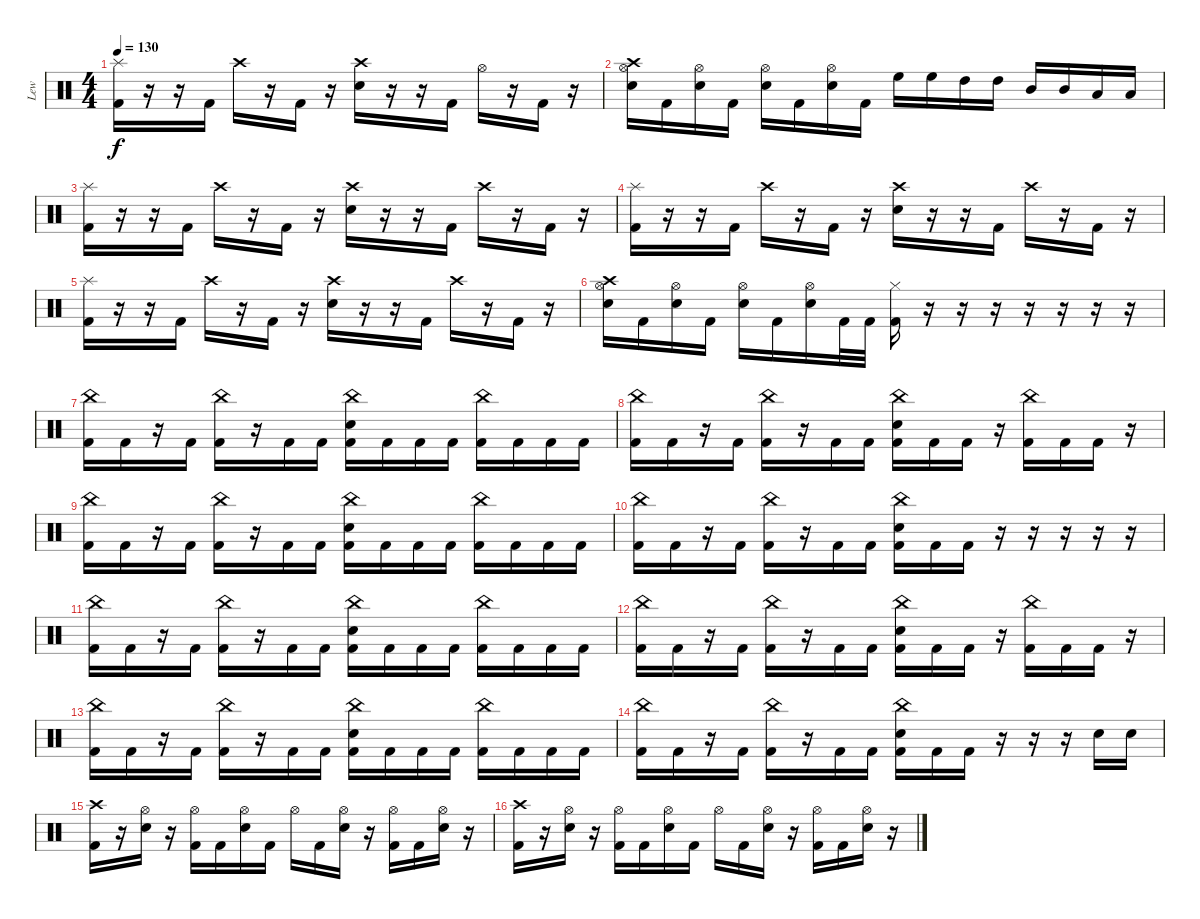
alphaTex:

\track ("Lew" "Lew") {instrument percussion}
\staff {score}
\articulation defaults
\ts (4 4)
\tempo 130
\clef neutral
\ks c
("Splash (hit)" "Kick (hit) 2").16{dy f} r.16 r.16 "Kick (hit) 2".16 "Crash high (hit)".16 r.16 "Kick (hit) 2".16 r.16 ("Crash high (hit)" "Electric Snare (hit)").16 r.16 r.16 "Kick (hit) 2".16 "Hi-Hat (open)".16 r.16 "Kick (hit) 2".16 r.16 |
("Crash high (hit)" "Hi-Hat (open)" "Electric Snare (hit)").16 "Kick (hit) 2".16 ("Hi-Hat (open)" "Electric Snare (hit)").16 "Kick (hit) 2".16 ("Hi-Hat (open)" "Electric Snare (hit)").16 "Kick (hit) 2".16 ("Hi-Hat (open)" "Electric Snare (hit)").16 "Kick (hit) 2".16 "High Floor Tom (hit)".16 "High Floor Tom (hit)".16 "High Tom (hit)".16 "High Tom (hit)".16 "Mid Tom (hit)".16 "Mid Tom (hit)".16 "Low Tom (hit)".16 "Low Tom (hit)".16 |
("Splash (hit)" "Kick (hit) 2").16 r.16 r.16 "Kick (hit) 2".16 "Crash high (hit)".16 r.16 "Kick (hit) 2".16 r.16 ("Crash high (hit)" "Electric Snare (hit)").16 r.16 r.16 "Kick (hit) 2".16 "Crash high (hit)".16 r.16 "Kick (hit) 2".16 r.16 |
("Splash (hit)" "Kick (hit) 2").16 r.16 r.16 "Kick (hit) 2".16 "Crash high (hit)".16 r.16 "Kick (hit) 2".16 r.16 ("Crash high (hit)" "Electric Snare (hit)").16 r.16 r.16 "Kick (hit) 2".16 "Crash high (hit)".16 r.16 "Kick (hit) 2".16 r.16 |
("Splash (hit)" "Kick (hit) 2").16 r.16 r.16 "Kick (hit) 2".16 "Crash high (hit)".16 r.16 "Kick (hit) 2".16 r.16 ("Crash high (hit)" "Electric Snare (hit)").16 r.16 r.16 "Kick (hit) 2".16 "Crash high (hit)".16 r.16 "Kick (hit) 2".16 r.16 |
("Crash high (hit)" "Hi-Hat (open)" "Electric Snare (hit)").16 "Kick (hit) 2".16 ("Hi-Hat (open)" "Electric Snare (hit)").16 "Kick (hit) 2".16 ("Hi-Hat (open)" "Electric Snare (hit)").16 "Kick (hit) 2".16 ("Hi-Hat (open)" "Electric Snare (hit)").16 "Kick (hit) 2".32 "Kick (hit) 2".32 ("Kick (hit) 2" "Hi-Hat (closed)").16 r.16 r.16 r.16 r.16 r.16 r.16 r.16 |
("China (hit)" "Kick (hit) 2").16 "Kick (hit) 2".16 r.16 "Kick (hit) 2".16 ("China (hit)" "Kick (hit) 2").16 r.16 "Kick (hit) 2".16 "Kick (hit) 2".16 ("China (hit)" "Electric Snare (hit)" "Kick (hit) 2").16 "Kick (hit) 2".16 "Kick (hit) 2".16 "Kick (hit) 2".16 ("China (hit)" "Kick (hit) 2").16 "Kick (hit) 2".16 "Kick (hit) 2".16 "Kick (hit) 2".16 |
("China (hit)" "Kick (hit) 2").16 "Kick (hit) 2".16 r.16 "Kick (hit) 2".16 ("China (hit)" "Kick (hit) 2").16 r.16 "Kick (hit) 2".16 "Kick (hit) 2".16 ("China (hit)" "Electric Snare (hit)" "Kick (hit) 2").16 "Kick (hit) 2".16 "Kick (hit) 2".16 r.16 ("China (hit)" "Kick (hit) 2").16 "Kick (hit) 2".16 "Kick (hit) 2".16 r.16 |
("China (hit)" "Kick (hit) 2").16 "Kick (hit) 2".16 r.16 "Kick (hit) 2".16 ("China (hit)" "Kick (hit) 2").16 r.16 "Kick (hit) 2".16 "Kick (hit) 2".16 ("China (hit)" "Electric Snare (hit)" "Kick (hit) 2").16 "Kick (hit) 2".16 "Kick (hit) 2".16 "Kick (hit) 2".16 ("China (hit)" "Kick (hit) 2").16 "Kick (hit) 2".16 "Kick (hit) 2".16 "Kick (hit) 2".16 |
("China (hit)" "Kick (hit) 2").16 "Kick (hit) 2".16 r.16 "Kick (hit) 2".16 ("China (hit)" "Kick (hit) 2").16 r.16 "Kick (hit) 2".16 "Kick (hit) 2".16 ("China (hit)" "Electric Snare (hit)" "Kick (hit) 2").16 "Kick (hit) 2".16 "Kick (hit) 2".16 r.16 r.16 r.16 r.16 r.16 |
("China (hit)" "Kick (hit) 2").16 "Kick (hit) 2".16 r.16 "Kick (hit) 2".16 ("China (hit)" "Kick (hit) 2").16 r.16 "Kick (hit) 2".16 "Kick (hit) 2".16 ("China (hit)" "Electric Snare (hit)" "Kick (hit) 2").16 "Kick (hit) 2".16 "Kick (hit) 2".16 "Kick (hit) 2".16 ("China (hit)" "Kick (hit) 2").16 "Kick (hit) 2".16 "Kick (hit) 2".16 "Kick (hit) 2".16 |
("China (hit)" "Kick (hit) 2").16 "Kick (hit) 2".16 r.16 "Kick (hit) 2".16 ("China (hit)" "Kick (hit) 2").16 r.16 "Kick (hit) 2".16 "Kick (hit) 2".16 ("China (hit)" "Electric Snare (hit)" "Kick (hit) 2").16 "Kick (hit) 2".16 "Kick (hit) 2".16 r.16 ("China (hit)" "Kick (hit) 2").16 "Kick (hit) 2".16 "Kick (hit) 2".16 r.16 |
("China (hit)" "Kick (hit) 2").16 "Kick (hit) 2".16 r.16 "Kick (hit) 2".16 ("China (hit)" "Kick (hit) 2").16 r.16 "Kick (hit) 2".16 "Kick (hit) 2".16 ("China (hit)" "Electric Snare (hit)" "Kick (hit) 2").16 "Kick (hit) 2".16 "Kick (hit) 2".16 "Kick (hit) 2".16 ("China (hit)" "Kick (hit) 2").16 "Kick (hit) 2".16 "Kick (hit) 2".16 "Kick (hit) 2".16 |
("China (hit)" "Kick (hit) 2").16 "Kick (hit) 2".16 r.16 "Kick (hit) 2".16 ("China (hit)" "Kick (hit) 2").16 r.16 "Kick (hit) 2".16 "Kick (hit) 2".16 ("China (hit)" "Electric Snare (hit)" "Kick (hit) 2").16 "Kick (hit) 2".16 "Kick (hit) 2".16 r.16 r.16 r.16 "Electric Snare (hit)".16 "Electric Snare (hit)".16 |
("Crash high (hit)" "Kick (hit) 2").16 r.16 ("Hi-Hat (open)" "Electric Snare (hit)").16 r.16 ("Hi-Hat (open)" "Kick (hit) 2").16 "Kick (hit) 2".16 ("Hi-Hat (open)" "Electric Snare (hit)").16 "Kick (hit) 2".16 "Hi-Hat (open)".16 "Kick (hit) 2".16 ("Hi-Hat (open)" "Electric Snare (hit)").16 r.16 ("Hi-Hat (open)" "Kick (hit) 2").16 "Kick (hit) 2".16 ("Hi-Hat (open)" "Electric Snare (hit)").16 r.16 |
("Crash high (hit)" "Kick (hit) 2").16 r.16 ("Hi-Hat (open)" "Electric Snare (hit)").16 r.16 ("Hi-Hat (open)" "Kick (hit) 2").16 "Kick (hit) 2".16 ("Hi-Hat (open)" "Electric Snare (hit)").16 "Kick (hit) 2".16 "Hi-Hat (open)".16 "Kick (hit) 2".16 ("Hi-Hat (open)" "Electric Snare (hit)").16 r.16 ("Hi-Hat (open)" "Kick (hit) 2").16 "Kick (hit) 2".16 ("Hi-Hat (open)" "Electric Snare (hit)").16 r.16
